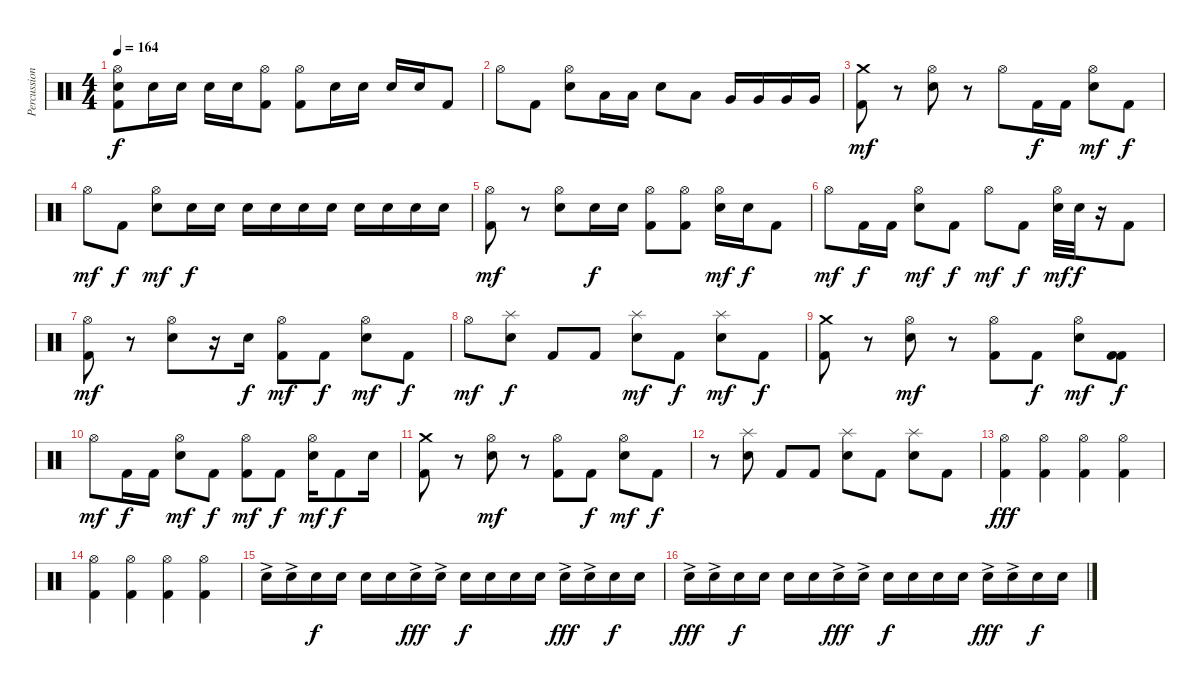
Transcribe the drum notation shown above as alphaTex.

\track ("Percussion" "Percussion") {instrument percussion}
\staff {score}
\articulation defaults
\ts (4 4)
\tempo 164
\clef neutral
\ks c
("Hi-Hat (open)" "Electric Snare (hit)" "Kick (hit) 2").8{dy f} "Electric Snare (hit)".16 "Electric Snare (hit)".16 "Electric Snare (hit)".16 "Electric Snare (hit)".16 ("Hi-Hat (open)" "Kick (hit) 2").8 ("Hi-Hat (open)" "Kick (hit) 2").8 "Electric Snare (hit)".16 "Electric Snare (hit)".16 "Electric Snare (hit)".16 "Electric Snare (hit)".16 "Kick (hit) 2".8 |
"Hi-Hat (open)".8 "Kick (hit) 2".8 ("Hi-Hat (open)" "Electric Snare (hit)").8 "Low Tom (hit)".16 "Low Tom (hit)".16 "Electric Snare (hit)".8 "Low Tom (hit)".8 "Very Low Tom (hit)".16 "Very Low Tom (hit)".16 "Very Low Tom (hit)".16 "Very Low Tom (hit)".16 |
("Crash medium (hit)" "Kick (hit) 2").8{dy mf} r.8 ("Hi-Hat (open)" "Electric Snare (hit)").8 r.8 "Hi-Hat (open)".8 "Kick (hit) 2".16{dy f} "Kick (hit) 2".16 ("Hi-Hat (open)" "Electric Snare (hit)").8{dy mf} "Kick (hit) 2".8{dy f} |
"Hi-Hat (open)".8{dy mf} "Kick (hit) 2".8{dy f} ("Hi-Hat (open)" "Electric Snare (hit)").8{dy mf} "Electric Snare (hit)".16{dy f} "Electric Snare (hit)".16 "Electric Snare (hit)".16 "Electric Snare (hit)".16 "Electric Snare (hit)".16 "Electric Snare (hit)".16 "Electric Snare (hit)".16 "Electric Snare (hit)".16 "Electric Snare (hit)".16 "Electric Snare (hit)".16 |
("Hi-Hat (open)" "Kick (hit) 2").8{dy mf} r.8 ("Hi-Hat (open)" "Electric Snare (hit)").8 "Electric Snare (hit)".16{dy f} "Electric Snare (hit)".16 ("Hi-Hat (open)" "Kick (hit) 2").8 ("Hi-Hat (open)" "Kick (hit) 2").8 ("Hi-Hat (open)" "Electric Snare (hit)").16{dy mf} "Electric Snare (hit)".16{dy f} "Kick (hit) 2".8 |
"Hi-Hat (open)".8{dy mf} "Kick (hit) 2".16{dy f} "Kick (hit) 2".16 ("Hi-Hat (open)" "Electric Snare (hit)").8{dy mf} "Kick (hit) 2".8{dy f} "Hi-Hat (open)".8{dy mf} "Kick (hit) 2".8{dy f} ("Hi-Hat (open)" "Electric Snare (hit)").32{dy mf} "Electric Snare (hit)".32{dy f} r.16 "Kick (hit) 2".8 |
("Hi-Hat (open)" "Kick (hit) 2").8{dy mf} r.8 ("Hi-Hat (open)" "Electric Snare (hit)").8 r.16 "Electric Snare (hit)".16{dy f} ("Hi-Hat (open)" "Kick (hit) 2").8{dy mf} "Kick (hit) 2".8{dy f} ("Hi-Hat (open)" "Electric Snare (hit)").8{dy mf} "Kick (hit) 2".8{dy f} |
"Hi-Hat (open)".8{dy mf} ("Splash (hit)" "Electric Snare (hit)").8{dy f} "Kick (hit) 2".8 "Kick (hit) 2".8 ("Splash (hit)" "Electric Snare (hit)").8{dy mf} "Kick (hit) 2".8{dy f} ("Splash (hit)" "Electric Snare (hit)").8{dy mf} "Kick (hit) 2".8{dy f} |
("Crash medium (hit)" "Kick (hit) 2").8 r.8 ("Hi-Hat (open)" "Electric Snare (hit)").8{dy mf} r.8 ("Hi-Hat (open)" "Kick (hit) 2").8 "Kick (hit) 2".8{dy f} ("Hi-Hat (open)" "Electric Snare (hit)").8{dy mf} ("Kick (hit) 2" "Kick (hit) 2").8{dy f} |
"Hi-Hat (open)".8{dy mf} "Kick (hit) 2".16{dy f} "Kick (hit) 2".16 ("Hi-Hat (open)" "Electric Snare (hit)").8{dy mf} "Kick (hit) 2".8{dy f} ("Hi-Hat (open)" "Kick (hit) 2").8{dy mf} "Kick (hit) 2".8{dy f} ("Hi-Hat (open)" "Electric Snare (hit)").16{dy mf} "Kick (hit) 2".8{dy f} "Electric Snare (hit)".16 |
("Crash medium (hit)" "Kick (hit) 2").8 r.8 ("Hi-Hat (open)" "Electric Snare (hit)").8{dy mf} r.8 ("Hi-Hat (open)" "Kick (hit) 2").8 "Kick (hit) 2".8{dy f} ("Hi-Hat (open)" "Electric Snare (hit)").8{dy mf} "Kick (hit) 2".8{dy f} |
r.8 ("Splash (hit)" "Electric Snare (hit)").8 "Kick (hit) 2".8 "Kick (hit) 2".8 ("Splash (hit)" "Electric Snare (hit)").8 "Kick (hit) 2".8 ("Splash (hit)" "Electric Snare (hit)").8 "Kick (hit) 2".8 |
("Hi-Hat (open)" "Kick (hit) 2").4{dy fff} ("Hi-Hat (open)" "Kick (hit) 2").4 ("Hi-Hat (open)" "Kick (hit) 2").4 ("Hi-Hat (open)" "Kick (hit) 2").4 |
("Hi-Hat (open)" "Kick (hit) 2").4 ("Hi-Hat (open)" "Kick (hit) 2").4 ("Hi-Hat (open)" "Kick (hit) 2").4 ("Hi-Hat (open)" "Kick (hit) 2").4 |
"Electric Snare (hit)"{ac}.16 "Electric Snare (hit)"{ac}.16 "Electric Snare (hit)".16{dy f} "Electric Snare (hit)".16 "Electric Snare (hit)".16 "Electric Snare (hit)".16 "Electric Snare (hit)"{ac}.16{dy fff} "Electric Snare (hit)"{ac}.16 "Electric Snare (hit)".16{dy f} "Electric Snare (hit)".16 "Electric Snare (hit)".16 "Electric Snare (hit)".16 "Electric Snare (hit)"{ac}.16{dy fff} "Electric Snare (hit)"{ac}.16 "Electric Snare (hit)".16{dy f} "Electric Snare (hit)".16 |
"Electric Snare (hit)"{ac}.16{dy fff} "Electric Snare (hit)"{ac}.16 "Electric Snare (hit)".16{dy f} "Electric Snare (hit)".16 "Electric Snare (hit)".16 "Electric Snare (hit)".16 "Electric Snare (hit)"{ac}.16{dy fff} "Electric Snare (hit)"{ac}.16 "Electric Snare (hit)".16{dy f} "Electric Snare (hit)".16 "Electric Snare (hit)".16 "Electric Snare (hit)".16 "Electric Snare (hit)"{ac}.16{dy fff} "Electric Snare (hit)"{ac}.16 "Electric Snare (hit)".16{dy f} "Electric Snare (hit)".16
